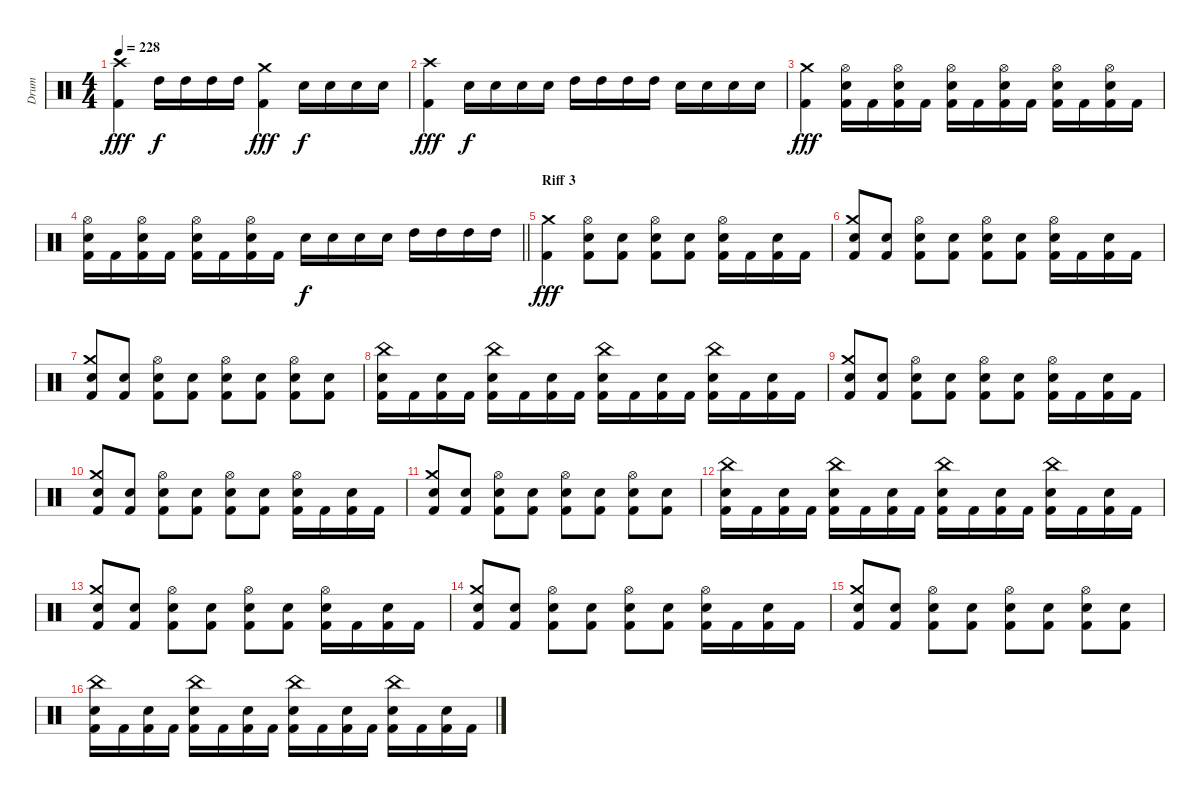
\track ("Drum" "Drum") {instrument percussion}
\staff {score}
\articulation defaults
\ts (4 4)
\tempo 228
\clef neutral
\ks c
("Crash high (hit)" "Kick (hit) 2").4{dy fff} "High Tom (hit)".16{dy f} "High Tom (hit)".16 "High Tom (hit)".16 "High Tom (hit)".16 ("Crash medium (hit)" "Kick (hit) 2").4{dy fff} "Snare (hit) 2".16{dy f} "Snare (hit) 2".16 "Snare (hit) 2".16 "Snare (hit) 2".16 |
("Crash high (hit)" "Kick (hit) 2").4{dy fff} "Snare (hit) 2".16{dy f} "Snare (hit) 2".16 "Snare (hit) 2".16 "Snare (hit) 2".16 "High Tom (hit)".16 "High Tom (hit)".16 "High Tom (hit)".16 "High Tom (hit)".16 "Snare (hit) 2".16 "Snare (hit) 2".16 "Snare (hit) 2".16 "Snare (hit) 2".16 |
("Crash medium (hit)" "Kick (hit) 2").4{dy fff} ("Hi-Hat (open)" "Snare (hit) 2" "Kick (hit) 2").16 "Kick (hit) 2".16 ("Hi-Hat (open)" "Snare (hit) 2" "Kick (hit) 2").16 "Kick (hit) 2".16 ("Hi-Hat (open)" "Snare (hit) 2" "Kick (hit) 2").16 "Kick (hit) 2".16 ("Hi-Hat (open)" "Snare (hit) 2" "Kick (hit) 2").16 "Kick (hit) 2".16 ("Hi-Hat (open)" "Snare (hit) 2" "Kick (hit) 2").16 "Kick (hit) 2".16 ("Hi-Hat (open)" "Snare (hit) 2" "Kick (hit) 2").16 "Kick (hit) 2".16 |
\barLineRight lightlight
("Hi-Hat (open)" "Snare (hit) 2" "Kick (hit) 2").16 "Kick (hit) 2".16 ("Hi-Hat (open)" "Snare (hit) 2" "Kick (hit) 2").16 "Kick (hit) 2".16 ("Hi-Hat (open)" "Snare (hit) 2" "Kick (hit) 2").16 "Kick (hit) 2".16 ("Hi-Hat (open)" "Snare (hit) 2" "Kick (hit) 2").16 "Kick (hit) 2".16 "Snare (hit) 2".16{dy f} "Snare (hit) 2".16 "Snare (hit) 2".16 "Snare (hit) 2".16 "High Tom (hit)".16 "High Tom (hit)".16 "High Tom (hit)".16 "High Tom (hit)".16 |
\section ("" "Riff 3")
("Crash medium (hit)" "Kick (hit) 2").4{dy fff} ("Hi-Hat (open)" "Snare (hit) 2" "Kick (hit) 2").8 ("Snare (hit) 2" "Kick (hit) 2").8 ("Hi-Hat (open)" "Snare (hit) 2" "Kick (hit) 2").8 ("Snare (hit) 2" "Kick (hit) 2").8 ("Hi-Hat (open)" "Snare (hit) 2" "Kick (hit) 2").16 "Kick (hit) 2".16 ("Snare (hit) 2" "Kick (hit) 2").16 "Kick (hit) 2".16 |
("Crash medium (hit)" "Snare (hit) 2" "Kick (hit) 2").8 ("Snare (hit) 2" "Kick (hit) 2").8 ("Hi-Hat (open)" "Snare (hit) 2" "Kick (hit) 2").8 ("Snare (hit) 2" "Kick (hit) 2").8 ("Hi-Hat (open)" "Snare (hit) 2" "Kick (hit) 2").8 ("Snare (hit) 2" "Kick (hit) 2").8 ("Hi-Hat (open)" "Snare (hit) 2" "Kick (hit) 2").16 "Kick (hit) 2".16 ("Snare (hit) 2" "Kick (hit) 2").16 "Kick (hit) 2".16 |
("Crash medium (hit)" "Snare (hit) 2" "Kick (hit) 2").8 ("Snare (hit) 2" "Kick (hit) 2").8 ("Hi-Hat (open)" "Snare (hit) 2" "Kick (hit) 2").8 ("Snare (hit) 2" "Kick (hit) 2").8 ("Hi-Hat (open)" "Snare (hit) 2" "Kick (hit) 2").8 ("Snare (hit) 2" "Kick (hit) 2").8 ("Hi-Hat (open)" "Snare (hit) 2" "Kick (hit) 2").8 ("Snare (hit) 2" "Kick (hit) 2").8 |
("China (hit)" "Snare (hit) 2" "Kick (hit) 2").16 "Kick (hit) 2".16 ("Snare (hit) 2" "Kick (hit) 2").16 "Kick (hit) 2".16 ("China (hit)" "Snare (hit) 2" "Kick (hit) 2").16 "Kick (hit) 2".16 ("Snare (hit) 2" "Kick (hit) 2").16 "Kick (hit) 2".16 ("China (hit)" "Snare (hit) 2" "Kick (hit) 2").16 "Kick (hit) 2".16 ("Snare (hit) 2" "Kick (hit) 2").16 "Kick (hit) 2".16 ("China (hit)" "Snare (hit) 2" "Kick (hit) 2").16 "Kick (hit) 2".16 ("Snare (hit) 2" "Kick (hit) 2").16 "Kick (hit) 2".16 |
("Crash medium (hit)" "Snare (hit) 2" "Kick (hit) 2").8 ("Snare (hit) 2" "Kick (hit) 2").8 ("Hi-Hat (open)" "Snare (hit) 2" "Kick (hit) 2").8 ("Snare (hit) 2" "Kick (hit) 2").8 ("Hi-Hat (open)" "Snare (hit) 2" "Kick (hit) 2").8 ("Snare (hit) 2" "Kick (hit) 2").8 ("Hi-Hat (open)" "Snare (hit) 2" "Kick (hit) 2").16 "Kick (hit) 2".16 ("Snare (hit) 2" "Kick (hit) 2").16 "Kick (hit) 2".16 |
("Crash medium (hit)" "Snare (hit) 2" "Kick (hit) 2").8 ("Snare (hit) 2" "Kick (hit) 2").8 ("Hi-Hat (open)" "Snare (hit) 2" "Kick (hit) 2").8 ("Snare (hit) 2" "Kick (hit) 2").8 ("Hi-Hat (open)" "Snare (hit) 2" "Kick (hit) 2").8 ("Snare (hit) 2" "Kick (hit) 2").8 ("Hi-Hat (open)" "Snare (hit) 2" "Kick (hit) 2").16 "Kick (hit) 2".16 ("Snare (hit) 2" "Kick (hit) 2").16 "Kick (hit) 2".16 |
("Crash medium (hit)" "Snare (hit) 2" "Kick (hit) 2").8 ("Snare (hit) 2" "Kick (hit) 2").8 ("Hi-Hat (open)" "Snare (hit) 2" "Kick (hit) 2").8 ("Snare (hit) 2" "Kick (hit) 2").8 ("Hi-Hat (open)" "Snare (hit) 2" "Kick (hit) 2").8 ("Snare (hit) 2" "Kick (hit) 2").8 ("Hi-Hat (open)" "Snare (hit) 2" "Kick (hit) 2").8 ("Snare (hit) 2" "Kick (hit) 2").8 |
("China (hit)" "Snare (hit) 2" "Kick (hit) 2").16 "Kick (hit) 2".16 ("Snare (hit) 2" "Kick (hit) 2").16 "Kick (hit) 2".16 ("China (hit)" "Snare (hit) 2" "Kick (hit) 2").16 "Kick (hit) 2".16 ("Snare (hit) 2" "Kick (hit) 2").16 "Kick (hit) 2".16 ("China (hit)" "Snare (hit) 2" "Kick (hit) 2").16 "Kick (hit) 2".16 ("Snare (hit) 2" "Kick (hit) 2").16 "Kick (hit) 2".16 ("China (hit)" "Snare (hit) 2" "Kick (hit) 2").16 "Kick (hit) 2".16 ("Snare (hit) 2" "Kick (hit) 2").16 "Kick (hit) 2".16 |
("Crash medium (hit)" "Snare (hit) 2" "Kick (hit) 2").8 ("Snare (hit) 2" "Kick (hit) 2").8 ("Hi-Hat (open)" "Snare (hit) 2" "Kick (hit) 2").8 ("Snare (hit) 2" "Kick (hit) 2").8 ("Hi-Hat (open)" "Snare (hit) 2" "Kick (hit) 2").8 ("Snare (hit) 2" "Kick (hit) 2").8 ("Hi-Hat (open)" "Snare (hit) 2" "Kick (hit) 2").16 "Kick (hit) 2".16 ("Snare (hit) 2" "Kick (hit) 2").16 "Kick (hit) 2".16 |
("Crash medium (hit)" "Snare (hit) 2" "Kick (hit) 2").8 ("Snare (hit) 2" "Kick (hit) 2").8 ("Hi-Hat (open)" "Snare (hit) 2" "Kick (hit) 2").8 ("Snare (hit) 2" "Kick (hit) 2").8 ("Hi-Hat (open)" "Snare (hit) 2" "Kick (hit) 2").8 ("Snare (hit) 2" "Kick (hit) 2").8 ("Hi-Hat (open)" "Snare (hit) 2" "Kick (hit) 2").16 "Kick (hit) 2".16 ("Snare (hit) 2" "Kick (hit) 2").16 "Kick (hit) 2".16 |
("Crash medium (hit)" "Snare (hit) 2" "Kick (hit) 2").8 ("Snare (hit) 2" "Kick (hit) 2").8 ("Hi-Hat (open)" "Snare (hit) 2" "Kick (hit) 2").8 ("Snare (hit) 2" "Kick (hit) 2").8 ("Hi-Hat (open)" "Snare (hit) 2" "Kick (hit) 2").8 ("Snare (hit) 2" "Kick (hit) 2").8 ("Hi-Hat (open)" "Snare (hit) 2" "Kick (hit) 2").8 ("Snare (hit) 2" "Kick (hit) 2").8 |
("China (hit)" "Snare (hit) 2" "Kick (hit) 2").16 "Kick (hit) 2".16 ("Snare (hit) 2" "Kick (hit) 2").16 "Kick (hit) 2".16 ("China (hit)" "Snare (hit) 2" "Kick (hit) 2").16 "Kick (hit) 2".16 ("Snare (hit) 2" "Kick (hit) 2").16 "Kick (hit) 2".16 ("China (hit)" "Snare (hit) 2" "Kick (hit) 2").16 "Kick (hit) 2".16 ("Snare (hit) 2" "Kick (hit) 2").16 "Kick (hit) 2".16 ("China (hit)" "Snare (hit) 2" "Kick (hit) 2").16 "Kick (hit) 2".16 ("Snare (hit) 2" "Kick (hit) 2").16 "Kick (hit) 2".16
